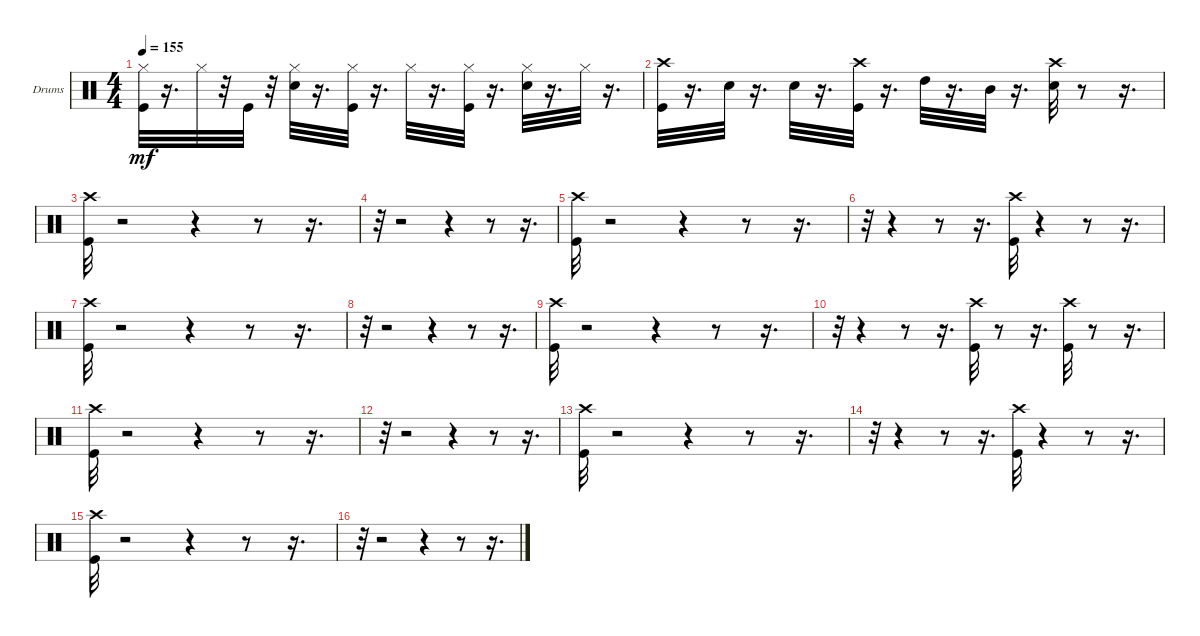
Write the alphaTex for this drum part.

\bracketExtendMode groupsimilarinstruments
\firstSystemTrackNameOrientation horizontal
\otherSystemsTrackNameOrientation horizontal
\track ("" "Drums") {instrument percussion}
\staff {score}
\articulation defaults
\ts (4 4)
\tempo 155
\clef neutral
\ks c
("Hi-Hat (closed)" "Kick (hit)").32{dy mf} r.16{d} "Hi-Hat (closed)".32 r.32 "Kick (hit)".32 r.32 ("Hi-Hat (closed)" "Snare (hit) 2").32 r.16{d} ("Kick (hit)" "Hi-Hat (closed)").32 r.16{d} "Hi-Hat (closed)".32 r.16{d} ("Kick (hit)" "Hi-Hat (closed)").32 r.16{d} ("Hi-Hat (closed)" "Snare (hit) 2").32 r.16{d} "Hi-Hat (closed)".32 r.16{d} |
("Crash high (hit)" "Kick (hit)").32 r.16{d} "Snare (hit) 2".32 r.16{d} "Snare (hit) 2".32 r.16{d} ("Crash high (hit)" "Kick (hit)").32 r.16{d} "High Tom (hit)".32 r.16{d} "Mid Tom (hit)".32 r.16{d} ("Crash high (hit)" "Snare (hit) 2").32 r.8 r.16{d} |
("Crash high (hit)" "Kick (hit)").32 r.2 r.4 r.8 r.16{d} |
r.32 r.2 r.4 r.8 r.16{d} |
("Crash high (hit)" "Kick (hit)").32 r.2 r.4 r.8 r.16{d} |
r.32 r.4 r.8 r.16{d} ("Crash high (hit)" "Kick (hit)").32 r.4 r.8 r.16{d} |
("Crash high (hit)" "Kick (hit)").32 r.2 r.4 r.8 r.16{d} |
r.32 r.2 r.4 r.8 r.16{d} |
("Crash high (hit)" "Kick (hit)").32 r.2 r.4 r.8 r.16{d} |
r.32 r.4 r.8 r.16{d} ("Crash high (hit)" "Kick (hit)").32 r.8 r.16{d} ("Kick (hit)" "Crash high (hit)").32 r.8 r.16{d} |
("Crash high (hit)" "Kick (hit)").32 r.2 r.4 r.8 r.16{d} |
r.32 r.2 r.4 r.8 r.16{d} |
("Crash high (hit)" "Kick (hit)").32 r.2 r.4 r.8 r.16{d} |
r.32 r.4 r.8 r.16{d} ("Crash high (hit)" "Kick (hit)").32 r.4 r.8 r.16{d} |
("Crash high (hit)" "Kick (hit)").32 r.2 r.4 r.8 r.16{d} |
r.32 r.2 r.4 r.8 r.16{d}
